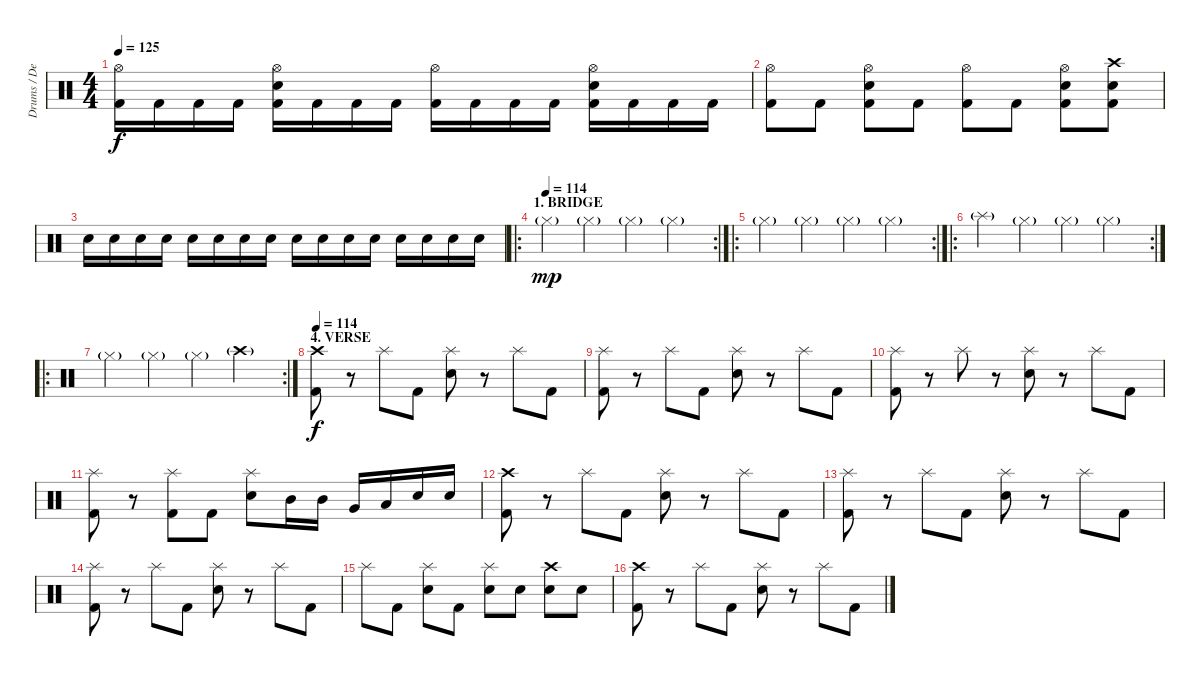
\track ("Drums / Dennis" "Drums / De") {instrument percussion}
\staff {score}
\articulation defaults
\ts (4 4)
\tempo 125
\clef neutral
\ks c
("Hi-Hat (open)" "Kick (hit) 2").16{dy f} "Kick (hit) 2".16 "Kick (hit) 2".16 "Kick (hit) 2".16 ("Hi-Hat (open)" "Electric Snare (hit)" "Kick (hit) 2").16 "Kick (hit) 2".16 "Kick (hit) 2".16 "Kick (hit) 2".16 ("Hi-Hat (open)" "Kick (hit) 2").16 "Kick (hit) 2".16 "Kick (hit) 2".16 "Kick (hit) 2".16 ("Hi-Hat (open)" "Electric Snare (hit)" "Kick (hit) 2").16 "Kick (hit) 2".16 "Kick (hit) 2".16 "Kick (hit) 2".16 |
("Hi-Hat (open)" "Kick (hit) 2").8 "Kick (hit) 2".8 ("Hi-Hat (open)" "Electric Snare (hit)" "Kick (hit) 2").8 "Kick (hit) 2".8 ("Hi-Hat (open)" "Kick (hit) 2").8 "Kick (hit) 2".8 ("Hi-Hat (open)" "Electric Snare (hit)" "Kick (hit) 2").8 ("Crash high (hit)" "Electric Snare (hit)" "Kick (hit) 2").8 |
"Electric Snare (hit)".16 "Electric Snare (hit)".16 "Electric Snare (hit)".16 "Electric Snare (hit)".16 "Electric Snare (hit)".16 "Electric Snare (hit)".16 "Electric Snare (hit)".16 "Electric Snare (hit)".16 "Electric Snare (hit)".16 "Electric Snare (hit)".16 "Electric Snare (hit)".16 "Electric Snare (hit)".16 "Electric Snare (hit)".16 "Electric Snare (hit)".16 "Electric Snare (hit)".16 "Electric Snare (hit)".16 |
\ro
\rc 2
\section ("" "1. BRIDGE")
\tempo (114)
"Hi-Hat (closed)"{g}.4{dy mp} "Hi-Hat (closed)"{g}.4 "Hi-Hat (closed)"{g}.4 "Hi-Hat (closed)"{g}.4 |
\ro
\rc 2 "Hi-Hat (closed)"{g}.4 "Hi-Hat (closed)"{g}.4 "Hi-Hat (closed)"{g}.4 "Hi-Hat (closed)"{g}.4
|
\ro
\rc 2 "Splash (hit)"{g}.4 "Hi-Hat (closed)"{g}.4 "Hi-Hat (closed)"{g}.4 "Hi-Hat (closed)"{g}.4
|
\ro
\rc 2 "Hi-Hat (closed)"{g}.4 "Hi-Hat (closed)"{g}.4 "Hi-Hat (closed)"{g}.4 "Crash high (hit)"{g}.4
|
\section ("" "4. VERSE")
\tempo 114
("Kick (hit) 2" "Crash high (hit)").8{dy f} r.8 "Splash (hit)".8 "Kick (hit) 2".8 ("Electric Snare (hit)" "Splash (hit)").8 r.8 "Splash (hit)".8 "Kick (hit) 2".8 |
("Kick (hit) 2" "Splash (hit)").8 r.8 "Splash (hit)".8 "Kick (hit) 2".8 ("Electric Snare (hit)" "Splash (hit)").8 r.8 "Splash (hit)".8 "Kick (hit) 2".8 |
("Kick (hit) 2" "Splash (hit)").8 r.8 "Splash (hit)".8 r.8 ("Electric Snare (hit)" "Splash (hit)").8 r.8 "Splash (hit)".8 "Kick (hit) 2".8 |
("Kick (hit) 2" "Splash (hit)").8 r.8 ("Kick (hit) 2" "Splash (hit)").8 "Kick (hit) 2".8 ("Electric Snare (hit)" "Splash (hit)").8 "Mid Tom (hit)".16 "Mid Tom (hit)".16 "Very Low Tom (hit)".16 "Low Floor Tom (hit)".16 "Electric Snare (hit)".16 "Electric Snare (hit)".16 |
("Kick (hit) 2" "Crash high (hit)").8 r.8 "Splash (hit)".8 "Kick (hit) 2".8 ("Electric Snare (hit)" "Splash (hit)").8 r.8 "Splash (hit)".8 "Kick (hit) 2".8 |
("Kick (hit) 2" "Splash (hit)").8 r.8 "Splash (hit)".8 "Kick (hit) 2".8 ("Electric Snare (hit)" "Splash (hit)").8 r.8 "Splash (hit)".8 "Kick (hit) 2".8 |
("Kick (hit) 2" "Splash (hit)").8 r.8 "Splash (hit)".8 "Kick (hit) 2".8 ("Electric Snare (hit)" "Splash (hit)").8 r.8 "Splash (hit)".8 "Kick (hit) 2".8 |
"Splash (hit)".8 "Kick (hit) 2".8 ("Electric Snare (hit)" "Splash (hit)").8 "Kick (hit) 2".8 ("Electric Snare (hit)" "Splash (hit)").8 "Electric Snare (hit)".8 ("Electric Snare (hit)" "Crash high (hit)").8 "Electric Snare (hit)".8 |
("Kick (hit) 2" "Crash high (hit)").8 r.8 "Splash (hit)".8 "Kick (hit) 2".8 ("Electric Snare (hit)" "Splash (hit)").8 r.8 "Splash (hit)".8 "Kick (hit) 2".8
